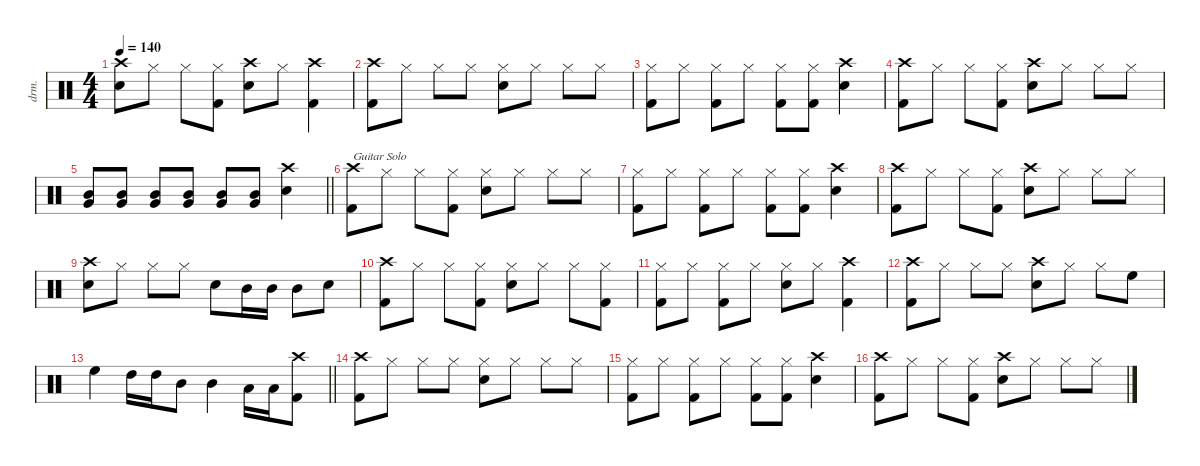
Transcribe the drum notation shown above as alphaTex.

\defaultSystemsLayout 4
\hideDynamics
\bracketExtendMode nobrackets
\otherSystemsTrackNameOrientation horizontal
\track ("Drums" "drm.") {defaultSystemsLayout 4 instrument percussion}
\staff {score}
\articulation defaults
\ts (4 4)
\tempo 140
\clef neutral
\ks c
("Crash high (hit)" "Snare (hit) 2").8{dy f beam Down} "Hi-Hat (closed)".8{beam Down} "Hi-Hat (closed)".8{beam Down} ("Hi-Hat (closed)" "Kick (hit) 2").8{beam Down} ("Crash high (hit)" "Snare (hit) 2").8{beam Down} "Hi-Hat (closed)".8{beam Down} ("Crash high (hit)" "Kick (hit) 2").4{beam Down} |
("Crash high (hit)" "Kick (hit) 2").8{beam Down} "Hi-Hat (closed)".8{beam Down} "Hi-Hat (closed)".8{beam Down} "Hi-Hat (closed)".8{beam Down} ("Hi-Hat (closed)" "Snare (hit) 2").8{beam Down} "Hi-Hat (closed)".8{beam Down} "Hi-Hat (closed)".8{beam Down} "Hi-Hat (closed)".8{beam Down} |
("Hi-Hat (closed)" "Kick (hit) 2").8{beam Down} "Hi-Hat (closed)".8{beam Down} ("Hi-Hat (closed)" "Kick (hit) 2").8{beam Down} "Hi-Hat (closed)".8{beam Down} ("Hi-Hat (closed)" "Kick (hit) 2").8{beam Down} ("Hi-Hat (closed)" "Kick (hit) 2").8{beam Down} ("Crash high (hit)" "Snare (hit) 2").4{beam Down} |
("Crash high (hit)" "Kick (hit) 2").8{beam Down} "Hi-Hat (closed)".8{beam Down} "Hi-Hat (closed)".8{beam Down} ("Hi-Hat (closed)" "Kick (hit) 2").8{beam Down} ("Crash high (hit)" "Snare (hit) 2").8{beam Down} "Hi-Hat (closed)".8{beam Down} "Hi-Hat (closed)".8{beam Down} "Hi-Hat (closed)".8{beam Down} |
\barLineRight lightlight
("Mid Tom (hit)" "Very Low Tom (hit)").8{beam Up} ("Mid Tom (hit)" "Very Low Tom (hit)").8{beam Up} ("Mid Tom (hit)" "Very Low Tom (hit)").8{beam Up} ("Mid Tom (hit)" "Very Low Tom (hit)").8{beam Up} ("Mid Tom (hit)" "Very Low Tom (hit)").8{beam Up} ("Mid Tom (hit)" "Very Low Tom (hit)").8{beam Up} ("Crash high (hit)" "Snare (hit) 2").4{beam Down} |
("Crash high (hit)" "Kick (hit) 2").8{txt "Guitar Solo" beam Down} "Hi-Hat (closed)".8{beam Down} "Hi-Hat (closed)".8{beam Down} ("Hi-Hat (closed)" "Kick (hit) 2").8{beam Down} ("Hi-Hat (closed)" "Snare (hit) 2").8{beam Down} "Hi-Hat (closed)".8{beam Down} "Hi-Hat (closed)".8{beam Down} "Hi-Hat (closed)".8{beam Down} |
("Hi-Hat (closed)" "Kick (hit) 2").8{beam Down} "Hi-Hat (closed)".8{beam Down} ("Hi-Hat (closed)" "Kick (hit) 2").8{beam Down} "Hi-Hat (closed)".8{beam Down} ("Hi-Hat (closed)" "Kick (hit) 2").8{beam Down} ("Hi-Hat (closed)" "Kick (hit) 2").8{beam Down} ("Crash high (hit)" "Snare (hit) 2").4{beam Down} |
("Crash high (hit)" "Kick (hit) 2").8{beam Down} "Hi-Hat (closed)".8{beam Down} "Hi-Hat (closed)".8{beam Down} ("Hi-Hat (closed)" "Kick (hit) 2").8{beam Down} ("Crash high (hit)" "Snare (hit) 2").8{beam Down} "Hi-Hat (closed)".8{beam Down} "Hi-Hat (closed)".8{beam Down} "Hi-Hat (closed)".8{beam Down} |
("Crash high (hit)" "Snare (hit) 2").8{beam Down} "Hi-Hat (closed)".8{beam Down} "Hi-Hat (closed)".8{beam Down} "Hi-Hat (closed)".8{beam Down} "Snare (hit) 2".8{dy fff beam Down} "Mid Tom (hit)".16{dy f beam Down} "Mid Tom (hit)".16{beam Down} "Mid Tom (hit)".8{beam Down} "Snare (hit) 2".8{beam Down} |
("Crash high (hit)" "Kick (hit) 2").8{beam Down} "Hi-Hat (closed)".8{beam Down} "Hi-Hat (closed)".8{beam Down} ("Hi-Hat (closed)" "Kick (hit) 2").8{beam Down} ("Hi-Hat (closed)" "Snare (hit) 2").8{beam Down} "Hi-Hat (closed)".8{beam Down} "Hi-Hat (closed)".8{beam Down} ("Hi-Hat (closed)" "Kick (hit) 2").8{beam Down} |
("Hi-Hat (closed)" "Kick (hit) 2").8{beam Down} "Hi-Hat (closed)".8{beam Down} ("Hi-Hat (closed)" "Kick (hit) 2").8{beam Down} "Hi-Hat (closed)".8{beam Down} ("Hi-Hat (closed)" "Snare (hit) 2").8{beam Down} "Hi-Hat (closed)".8{beam Down} ("Crash high (hit)" "Kick (hit) 2").4{beam Down} |
("Crash high (hit)" "Kick (hit) 2").8{beam Down} "Hi-Hat (closed)".8{beam Down} "Hi-Hat (closed)".8{beam Down} "Hi-Hat (closed)".8{beam Down} ("Crash high (hit)" "Snare (hit) 2").8{beam Down} "Hi-Hat (closed)".8{beam Down} "Hi-Hat (closed)".8{beam Down} "High Floor Tom (hit)".8{beam Down} |
\barLineRight lightlight "High Floor Tom (hit)".4{beam Down} "High Tom (hit)".16{beam Down} "High Tom (hit)".16{beam Down} "Mid Tom (hit)".8{beam Down} "Mid Tom (hit)".4{beam Down} "Low Tom (hit)".16{beam Down} "Low Tom (hit)".16{beam Down}
("Crash high (hit)" "Kick (hit) 2").8{beam Down} |
("Crash high (hit)" "Kick (hit) 2").8{beam Down} "Hi-Hat (closed)".8{beam Down} "Hi-Hat (closed)".8{beam Down} "Hi-Hat (closed)".8{beam Down} ("Hi-Hat (closed)" "Snare (hit) 2").8{beam Down} "Hi-Hat (closed)".8{beam Down} "Hi-Hat (closed)".8{beam Down} "Hi-Hat (closed)".8{beam Down} |
("Hi-Hat (closed)" "Kick (hit) 2").8{beam Down} "Hi-Hat (closed)".8{beam Down} ("Hi-Hat (closed)" "Kick (hit) 2").8{beam Down} "Hi-Hat (closed)".8{beam Down} ("Hi-Hat (closed)" "Kick (hit) 2").8{beam Down} ("Hi-Hat (closed)" "Kick (hit) 2").8{beam Down} ("Crash high (hit)" "Snare (hit) 2").4{beam Down} |
("Crash high (hit)" "Kick (hit) 2").8{beam Down} "Hi-Hat (closed)".8{beam Down} "Hi-Hat (closed)".8{beam Down} ("Hi-Hat (closed)" "Kick (hit) 2").8{beam Down} ("Crash high (hit)" "Snare (hit) 2").8{beam Down} "Hi-Hat (closed)".8{beam Down} "Hi-Hat (closed)".8{beam Down} "Hi-Hat (closed)".8{beam Down}
